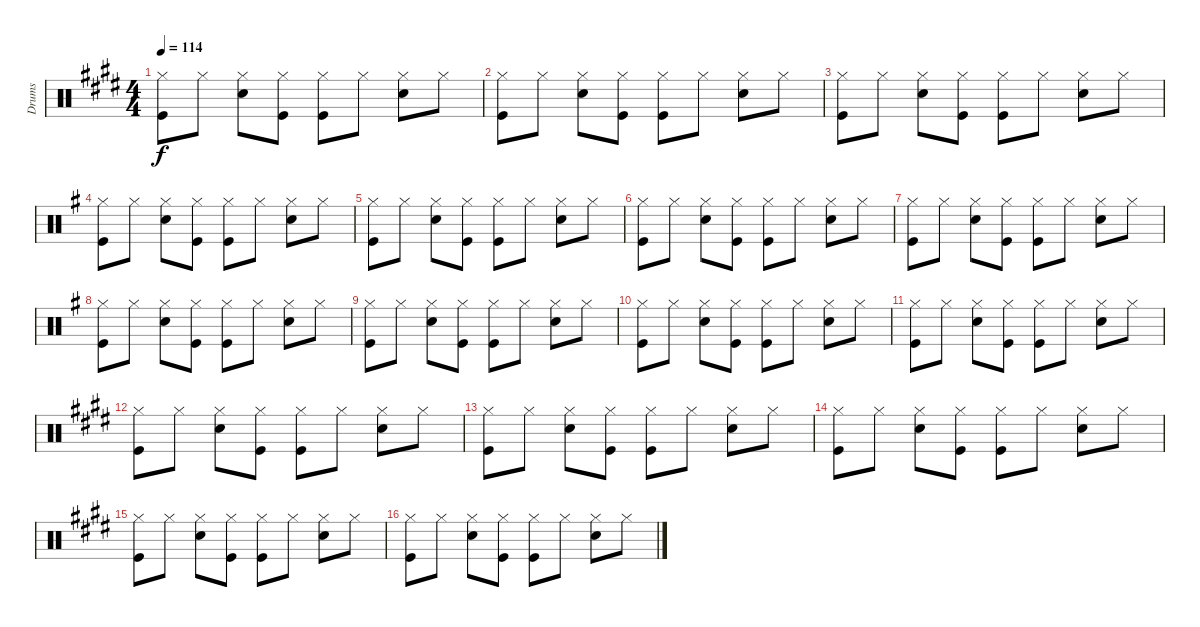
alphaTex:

\track ("Drums" "Drums") {instrument percussion}
\staff {score}
\articulation defaults
\ts (4 4)
\tempo 114
\clef neutral
\ks e
("Hi-Hat (closed)" "Kick (hit)").8{dy f} "Hi-Hat (closed)".8 ("Snare (hit) 2" "Hi-Hat (closed)").8 ("Hi-Hat (closed)" "Kick (hit)").8 ("Hi-Hat (closed)" "Kick (hit)").8 "Hi-Hat (closed)".8 ("Hi-Hat (closed)" "Snare (hit) 2").8 "Hi-Hat (closed)".8 |
("Hi-Hat (closed)" "Kick (hit)").8 "Hi-Hat (closed)".8 ("Snare (hit) 2" "Hi-Hat (closed)").8 ("Hi-Hat (closed)" "Kick (hit)").8 ("Hi-Hat (closed)" "Kick (hit)").8 "Hi-Hat (closed)".8 ("Hi-Hat (closed)" "Snare (hit) 2").8 "Hi-Hat (closed)".8 |
("Hi-Hat (closed)" "Kick (hit)").8 "Hi-Hat (closed)".8 ("Snare (hit) 2" "Hi-Hat (closed)").8 ("Hi-Hat (closed)" "Kick (hit)").8 ("Hi-Hat (closed)" "Kick (hit)").8 "Hi-Hat (closed)".8 ("Hi-Hat (closed)" "Snare (hit) 2").8 "Hi-Hat (closed)".8 |
\ks g
("Hi-Hat (closed)" "Kick (hit)").8 "Hi-Hat (closed)".8 ("Snare (hit) 2" "Hi-Hat (closed)").8 ("Hi-Hat (closed)" "Kick (hit)").8 ("Hi-Hat (closed)" "Kick (hit)").8 "Hi-Hat (closed)".8 ("Hi-Hat (closed)" "Snare (hit) 2").8 "Hi-Hat (closed)".8 |
("Hi-Hat (closed)" "Kick (hit)").8 "Hi-Hat (closed)".8 ("Snare (hit) 2" "Hi-Hat (closed)").8 ("Hi-Hat (closed)" "Kick (hit)").8 ("Hi-Hat (closed)" "Kick (hit)").8 "Hi-Hat (closed)".8 ("Hi-Hat (closed)" "Snare (hit) 2").8 "Hi-Hat (closed)".8 |
("Hi-Hat (closed)" "Kick (hit)").8 "Hi-Hat (closed)".8 ("Snare (hit) 2" "Hi-Hat (closed)").8 ("Hi-Hat (closed)" "Kick (hit)").8 ("Hi-Hat (closed)" "Kick (hit)").8 "Hi-Hat (closed)".8 ("Hi-Hat (closed)" "Snare (hit) 2").8 "Hi-Hat (closed)".8 |
("Hi-Hat (closed)" "Kick (hit)").8 "Hi-Hat (closed)".8 ("Snare (hit) 2" "Hi-Hat (closed)").8 ("Hi-Hat (closed)" "Kick (hit)").8 ("Hi-Hat (closed)" "Kick (hit)").8 "Hi-Hat (closed)".8 ("Hi-Hat (closed)" "Snare (hit) 2").8 "Hi-Hat (closed)".8 |
("Hi-Hat (closed)" "Kick (hit)").8 "Hi-Hat (closed)".8 ("Snare (hit) 2" "Hi-Hat (closed)").8 ("Hi-Hat (closed)" "Kick (hit)").8 ("Hi-Hat (closed)" "Kick (hit)").8 "Hi-Hat (closed)".8 ("Hi-Hat (closed)" "Snare (hit) 2").8 "Hi-Hat (closed)".8 |
("Hi-Hat (closed)" "Kick (hit)").8 "Hi-Hat (closed)".8 ("Snare (hit) 2" "Hi-Hat (closed)").8 ("Hi-Hat (closed)" "Kick (hit)").8 ("Hi-Hat (closed)" "Kick (hit)").8 "Hi-Hat (closed)".8 ("Hi-Hat (closed)" "Snare (hit) 2").8 "Hi-Hat (closed)".8 |
("Hi-Hat (closed)" "Kick (hit)").8 "Hi-Hat (closed)".8 ("Snare (hit) 2" "Hi-Hat (closed)").8 ("Hi-Hat (closed)" "Kick (hit)").8 ("Hi-Hat (closed)" "Kick (hit)").8 "Hi-Hat (closed)".8 ("Hi-Hat (closed)" "Snare (hit) 2").8 "Hi-Hat (closed)".8 |
("Hi-Hat (closed)" "Kick (hit)").8 "Hi-Hat (closed)".8 ("Snare (hit) 2" "Hi-Hat (closed)").8 ("Hi-Hat (closed)" "Kick (hit)").8 ("Hi-Hat (closed)" "Kick (hit)").8 "Hi-Hat (closed)".8 ("Hi-Hat (closed)" "Snare (hit) 2").8 "Hi-Hat (closed)".8 |
\ks e
("Hi-Hat (closed)" "Kick (hit)").8 "Hi-Hat (closed)".8 ("Snare (hit) 2" "Hi-Hat (closed)").8 ("Hi-Hat (closed)" "Kick (hit)").8 ("Hi-Hat (closed)" "Kick (hit)").8 "Hi-Hat (closed)".8 ("Hi-Hat (closed)" "Snare (hit) 2").8 "Hi-Hat (closed)".8 |
("Hi-Hat (closed)" "Kick (hit)").8 "Hi-Hat (closed)".8 ("Snare (hit) 2" "Hi-Hat (closed)").8 ("Hi-Hat (closed)" "Kick (hit)").8 ("Hi-Hat (closed)" "Kick (hit)").8 "Hi-Hat (closed)".8 ("Hi-Hat (closed)" "Snare (hit) 2").8 "Hi-Hat (closed)".8 |
("Hi-Hat (closed)" "Kick (hit)").8 "Hi-Hat (closed)".8 ("Snare (hit) 2" "Hi-Hat (closed)").8 ("Hi-Hat (closed)" "Kick (hit)").8 ("Hi-Hat (closed)" "Kick (hit)").8 "Hi-Hat (closed)".8 ("Hi-Hat (closed)" "Snare (hit) 2").8 "Hi-Hat (closed)".8 |
("Hi-Hat (closed)" "Kick (hit)").8 "Hi-Hat (closed)".8 ("Snare (hit) 2" "Hi-Hat (closed)").8 ("Hi-Hat (closed)" "Kick (hit)").8 ("Hi-Hat (closed)" "Kick (hit)").8 "Hi-Hat (closed)".8 ("Hi-Hat (closed)" "Snare (hit) 2").8 "Hi-Hat (closed)".8 |
("Hi-Hat (closed)" "Kick (hit)").8 "Hi-Hat (closed)".8 ("Snare (hit) 2" "Hi-Hat (closed)").8 ("Hi-Hat (closed)" "Kick (hit)").8 ("Hi-Hat (closed)" "Kick (hit)").8 "Hi-Hat (closed)".8 ("Hi-Hat (closed)" "Snare (hit) 2").8 "Hi-Hat (closed)".8
